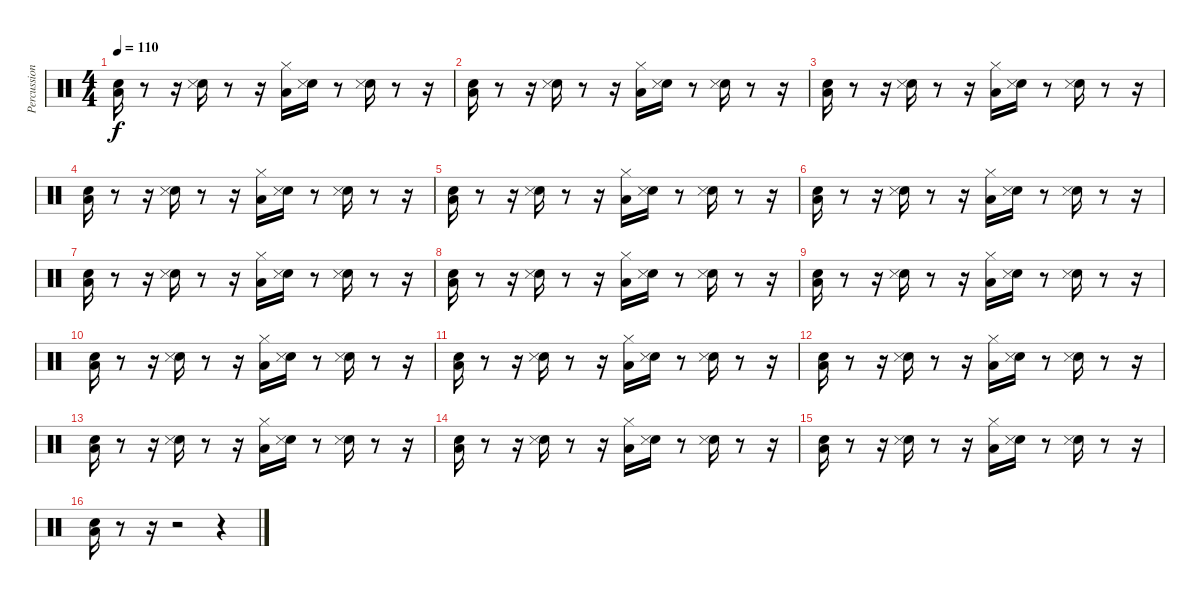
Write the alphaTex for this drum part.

\track ("Percussions" "Percussion") {instrument percussion}
\staff {score}
\articulation defaults
\ts (4 4)
\tempo 110
\clef neutral
\ks c
("Low Floor Tom (hit)" "Snare (hit) 2").16{dy f} r.8 r.16 ("Electric Snare (hit)" "Snare (side stick) 3").16 r.8 r.16 ("Low Floor Tom (hit)" "Hi-Hat (closed)").16 ("Electric Snare (hit)" "Snare (side stick) 3").16 r.8 ("Electric Snare (hit)" "Snare (side stick) 3").16 r.8 r.16 |
("Low Floor Tom (hit)" "Snare (hit) 2").16 r.8 r.16 ("Electric Snare (hit)" "Snare (side stick) 3").16 r.8 r.16 ("Low Floor Tom (hit)" "Hi-Hat (closed)").16 ("Electric Snare (hit)" "Snare (side stick) 3").16 r.8 ("Electric Snare (hit)" "Snare (side stick) 3").16 r.8 r.16 |
("Low Floor Tom (hit)" "Snare (hit) 2").16 r.8 r.16 ("Electric Snare (hit)" "Snare (side stick) 3").16 r.8 r.16 ("Low Floor Tom (hit)" "Hi-Hat (closed)").16 ("Electric Snare (hit)" "Snare (side stick) 3").16 r.8 ("Electric Snare (hit)" "Snare (side stick) 3").16 r.8 r.16 |
("Low Floor Tom (hit)" "Snare (hit) 2").16 r.8 r.16 ("Electric Snare (hit)" "Snare (side stick) 3").16 r.8 r.16 ("Low Floor Tom (hit)" "Hi-Hat (closed)").16 ("Electric Snare (hit)" "Snare (side stick) 3").16 r.8 ("Electric Snare (hit)" "Snare (side stick) 3").16 r.8 r.16 |
("Low Floor Tom (hit)" "Snare (hit) 2").16 r.8 r.16 ("Electric Snare (hit)" "Snare (side stick) 3").16 r.8 r.16 ("Low Floor Tom (hit)" "Hi-Hat (closed)").16 ("Electric Snare (hit)" "Snare (side stick) 3").16 r.8 ("Electric Snare (hit)" "Snare (side stick) 3").16 r.8 r.16 |
("Low Floor Tom (hit)" "Snare (hit) 2").16 r.8 r.16 ("Electric Snare (hit)" "Snare (side stick) 3").16 r.8 r.16 ("Low Floor Tom (hit)" "Hi-Hat (closed)").16 ("Electric Snare (hit)" "Snare (side stick) 3").16 r.8 ("Electric Snare (hit)" "Snare (side stick) 3").16 r.8 r.16 |
("Low Floor Tom (hit)" "Snare (hit) 2").16 r.8 r.16 ("Electric Snare (hit)" "Snare (side stick) 3").16 r.8 r.16 ("Low Floor Tom (hit)" "Hi-Hat (closed)").16 ("Electric Snare (hit)" "Snare (side stick) 3").16 r.8 ("Electric Snare (hit)" "Snare (side stick) 3").16 r.8 r.16 |
("Low Floor Tom (hit)" "Snare (hit) 2").16 r.8 r.16 ("Electric Snare (hit)" "Snare (side stick) 3").16 r.8 r.16 ("Low Floor Tom (hit)" "Hi-Hat (closed)").16 ("Electric Snare (hit)" "Snare (side stick) 3").16 r.8 ("Electric Snare (hit)" "Snare (side stick) 3").16 r.8 r.16 |
("Low Floor Tom (hit)" "Snare (hit) 2").16 r.8 r.16 ("Electric Snare (hit)" "Snare (side stick) 3").16 r.8 r.16 ("Low Floor Tom (hit)" "Hi-Hat (closed)").16 ("Electric Snare (hit)" "Snare (side stick) 3").16 r.8 ("Electric Snare (hit)" "Snare (side stick) 3").16 r.8 r.16 |
("Low Floor Tom (hit)" "Snare (hit) 2").16 r.8 r.16 ("Electric Snare (hit)" "Snare (side stick) 3").16 r.8 r.16 ("Low Floor Tom (hit)" "Hi-Hat (closed)").16 ("Electric Snare (hit)" "Snare (side stick) 3").16 r.8 ("Electric Snare (hit)" "Snare (side stick) 3").16 r.8 r.16 |
("Low Floor Tom (hit)" "Snare (hit) 2").16 r.8 r.16 ("Electric Snare (hit)" "Snare (side stick) 3").16 r.8 r.16 ("Low Floor Tom (hit)" "Hi-Hat (closed)").16 ("Electric Snare (hit)" "Snare (side stick) 3").16 r.8 ("Electric Snare (hit)" "Snare (side stick) 3").16 r.8 r.16 |
("Low Floor Tom (hit)" "Snare (hit) 2").16 r.8 r.16 ("Electric Snare (hit)" "Snare (side stick) 3").16 r.8 r.16 ("Low Floor Tom (hit)" "Hi-Hat (closed)").16 ("Electric Snare (hit)" "Snare (side stick) 3").16 r.8 ("Electric Snare (hit)" "Snare (side stick) 3").16 r.8 r.16 |
("Low Floor Tom (hit)" "Snare (hit) 2").16 r.8 r.16 ("Electric Snare (hit)" "Snare (side stick) 3").16 r.8 r.16 ("Low Floor Tom (hit)" "Hi-Hat (closed)").16 ("Electric Snare (hit)" "Snare (side stick) 3").16 r.8 ("Electric Snare (hit)" "Snare (side stick) 3").16 r.8 r.16 |
("Low Floor Tom (hit)" "Snare (hit) 2").16 r.8 r.16 ("Electric Snare (hit)" "Snare (side stick) 3").16 r.8 r.16 ("Low Floor Tom (hit)" "Hi-Hat (closed)").16 ("Electric Snare (hit)" "Snare (side stick) 3").16 r.8 ("Electric Snare (hit)" "Snare (side stick) 3").16 r.8 r.16 |
("Low Floor Tom (hit)" "Snare (hit) 2").16 r.8 r.16 ("Electric Snare (hit)" "Snare (side stick) 3").16 r.8 r.16 ("Low Floor Tom (hit)" "Hi-Hat (closed)").16 ("Electric Snare (hit)" "Snare (side stick) 3").16 r.8 ("Electric Snare (hit)" "Snare (side stick) 3").16 r.8 r.16 |
("Low Floor Tom (hit)" "Snare (hit) 2").16 r.8 r.16 r.2 r.4
